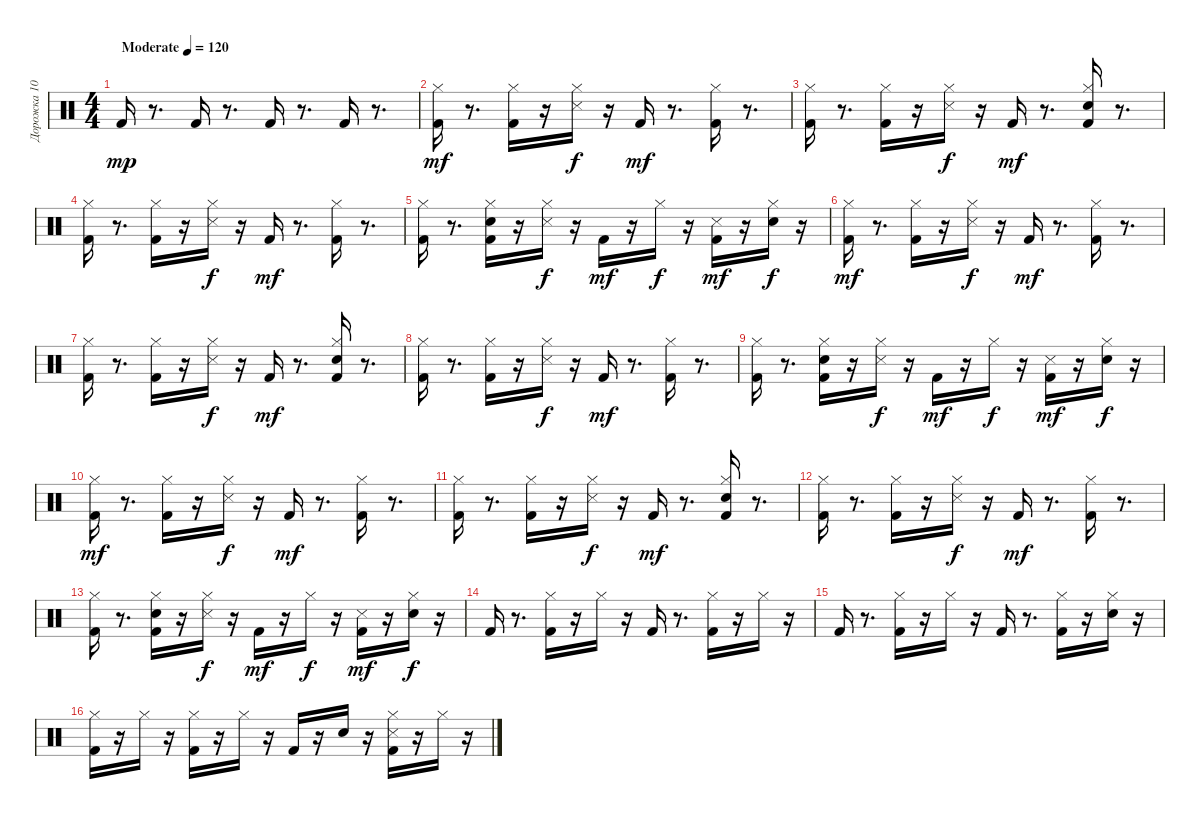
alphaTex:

\track ("Дорожка 10" "Дорожка 10") {instrument percussion}
\staff {score}
\articulation defaults
\ts (4 4)
\tempo (120 "Moderate")
\clef neutral
\ks c "Kick (hit) 2".16{dy mp}
r.8{d} "Kick (hit) 2".16 r.8{d} "Kick (hit) 2".16 r.8{d} "Kick (hit) 2".16 r.8{d} |
("Kick (hit) 2" "Hi-Hat (closed)").16{dy mf} r.8{d} ("Kick (hit) 2" "Hi-Hat (closed)").16 r.16 ("Snare (side stick) 3" "Hi-Hat (closed)").16{dy f} r.16 "Kick (hit) 2".16{dy mf} r.8{d} ("Kick (hit) 2" "Hi-Hat (closed)").16 r.8{d} |
("Kick (hit) 2" "Hi-Hat (closed)").16 r.8{d} ("Kick (hit) 2" "Hi-Hat (closed)").16 r.16 ("Snare (side stick) 3" "Hi-Hat (closed)").16{dy f} r.16 "Kick (hit) 2".16{dy mf} r.8{d} ("Kick (hit) 2" "Hand Clap (hit)" "Hi-Hat (closed)").16 r.8{d} |
("Kick (hit) 2" "Hi-Hat (closed)").16 r.8{d} ("Kick (hit) 2" "Hi-Hat (closed)").16 r.16 ("Snare (side stick) 3" "Hi-Hat (closed)").16{dy f} r.16 "Kick (hit) 2".16{dy mf} r.8{d} ("Kick (hit) 2" "Hi-Hat (closed)").16 r.8{d} |
("Kick (hit) 2" "Hi-Hat (closed)").16 r.8{d} ("Kick (hit) 2" "Hand Clap (hit)" "Hi-Hat (closed)").16 r.16 ("Snare (side stick) 3" "Hi-Hat (closed)").16{dy f} r.16 "Kick (hit) 2".16{dy mf} r.16 "Hi-Hat (closed)".16{dy f} r.16 ("Kick (hit) 2" "Snare (side stick) 3").16{dy mf} r.16 ("Snare (hit) 2" "Hi-Hat (closed)").16{dy f} r.16 |
("Kick (hit) 2" "Hi-Hat (closed)").16{dy mf} r.8{d} ("Kick (hit) 2" "Hi-Hat (closed)").16 r.16 ("Snare (side stick) 3" "Hi-Hat (closed)").16{dy f} r.16 "Kick (hit) 2".16{dy mf} r.8{d} ("Kick (hit) 2" "Hi-Hat (closed)").16 r.8{d} |
("Kick (hit) 2" "Hi-Hat (closed)").16 r.8{d} ("Kick (hit) 2" "Hi-Hat (closed)").16 r.16 ("Snare (side stick) 3" "Hi-Hat (closed)").16{dy f} r.16 "Kick (hit) 2".16{dy mf} r.8{d} ("Kick (hit) 2" "Hand Clap (hit)" "Hi-Hat (closed)").16 r.8{d} |
("Kick (hit) 2" "Hi-Hat (closed)").16 r.8{d} ("Kick (hit) 2" "Hi-Hat (closed)").16 r.16 ("Snare (side stick) 3" "Hi-Hat (closed)").16{dy f} r.16 "Kick (hit) 2".16{dy mf} r.8{d} ("Kick (hit) 2" "Hi-Hat (closed)").16 r.8{d} |
("Kick (hit) 2" "Hi-Hat (closed)").16 r.8{d} ("Kick (hit) 2" "Hand Clap (hit)" "Hi-Hat (closed)").16 r.16 ("Snare (side stick) 3" "Hi-Hat (closed)").16{dy f} r.16 "Kick (hit) 2".16{dy mf} r.16 "Hi-Hat (closed)".16{dy f} r.16 ("Kick (hit) 2" "Snare (side stick) 3").16{dy mf} r.16 ("Snare (hit) 2" "Hi-Hat (closed)").16{dy f} r.16 |
("Kick (hit) 2" "Hi-Hat (closed)").16{dy mf} r.8{d} ("Kick (hit) 2" "Hi-Hat (closed)").16 r.16 ("Snare (side stick) 3" "Hi-Hat (closed)").16{dy f} r.16 "Kick (hit) 2".16{dy mf} r.8{d} ("Kick (hit) 2" "Hi-Hat (closed)").16 r.8{d} |
("Kick (hit) 2" "Hi-Hat (closed)").16 r.8{d} ("Kick (hit) 2" "Hi-Hat (closed)").16 r.16 ("Snare (side stick) 3" "Hi-Hat (closed)").16{dy f} r.16 "Kick (hit) 2".16{dy mf} r.8{d} ("Kick (hit) 2" "Hand Clap (hit)" "Hi-Hat (closed)").16 r.8{d} |
("Kick (hit) 2" "Hi-Hat (closed)").16 r.8{d} ("Kick (hit) 2" "Hi-Hat (closed)").16 r.16 ("Snare (side stick) 3" "Hi-Hat (closed)").16{dy f} r.16 "Kick (hit) 2".16{dy mf} r.8{d} ("Kick (hit) 2" "Hi-Hat (closed)").16 r.8{d} |
("Kick (hit) 2" "Hi-Hat (closed)").16 r.8{d} ("Kick (hit) 2" "Hand Clap (hit)" "Hi-Hat (closed)").16 r.16 ("Snare (side stick) 3" "Hi-Hat (closed)").16{dy f} r.16 "Kick (hit) 2".16{dy mf} r.16 "Hi-Hat (closed)".16{dy f} r.16 ("Kick (hit) 2" "Snare (side stick) 3").16{dy mf} r.16 ("Snare (hit) 2" "Hi-Hat (closed)").16{dy f} r.16 |
"Kick (hit) 2".16 r.8{d} ("Kick (hit) 2" "Hi-Hat (closed)").16 r.16 "Hi-Hat (closed)".16 r.16 "Kick (hit) 2".16 r.8{d} ("Kick (hit) 2" "Hi-Hat (closed)").16 r.16 "Hi-Hat (closed)".16 r.16 |
"Kick (hit) 2".16 r.8{d} ("Kick (hit) 2" "Hi-Hat (closed)").16 r.16 "Hi-Hat (closed)".16 r.16 "Kick (hit) 2".16 r.8{d} ("Kick (hit) 2" "Hi-Hat (closed)").16 r.16 ("Snare (hit) 2" "Hi-Hat (closed)").16 r.16 |
("Kick (hit) 2" "Hi-Hat (closed)").16 r.16 "Hi-Hat (closed)".16 r.16 ("Kick (hit) 2" "Hi-Hat (closed)").16 r.16 "Hi-Hat (closed)".16 r.16 "Kick (hit) 2".16 r.16 "Hand Clap (hit)".16 r.16 ("Kick (hit) 2" "Snare (side stick) 3" "Hi-Hat (closed)").16 r.16 "Hi-Hat (closed)".16 r.16
